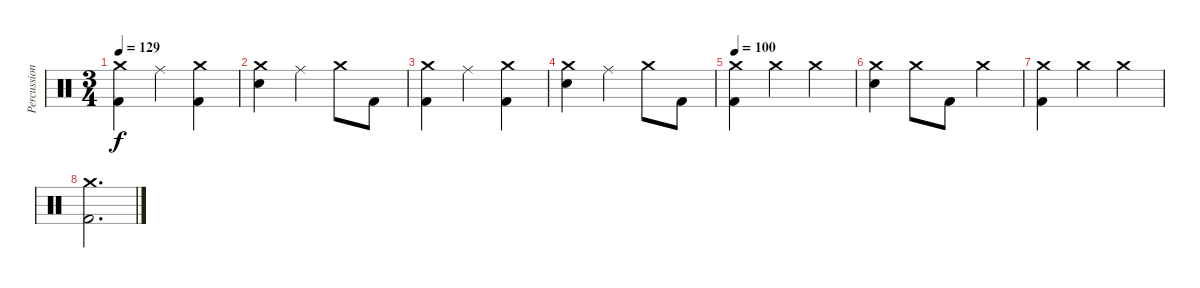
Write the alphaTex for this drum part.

\track ("Percussion" "Percussion") {instrument percussion}
\staff {score}
\articulation defaults
\ts (3 4)
\tempo 129
\clef neutral
\ks c
("Crash medium (hit)" "Kick (hit) 2").4{dy f} "Ride (middle)".4 ("Crash medium (hit)" "Kick (hit) 2").4 |
("Crash medium (hit)" "Electric Snare (hit)").4 "Ride (middle)".4 "Crash medium (hit)".8 "Kick (hit) 2".8 |
("Crash medium (hit)" "Kick (hit) 2").4 "Ride (middle)".4 ("Crash medium (hit)" "Kick (hit) 2").4 |
("Crash medium (hit)" "Electric Snare (hit)").4 "Ride (middle)".4 "Crash medium (hit)".8 "Kick (hit) 2".8 |
\tempo 100
("Crash medium (hit)" "Kick (hit) 2").4 "Crash medium (hit)".4 "Crash medium (hit)".4 |
("Crash medium (hit)" "Electric Snare (hit)").4 "Crash medium (hit)".8 "Kick (hit) 2".8 "Crash medium (hit)".4 |
("Crash medium (hit)" "Kick (hit) 2").4 "Crash medium (hit)".4 "Crash medium (hit)".4 |
("Crash medium (hit)" "Kick (hit) 2").2{d}
